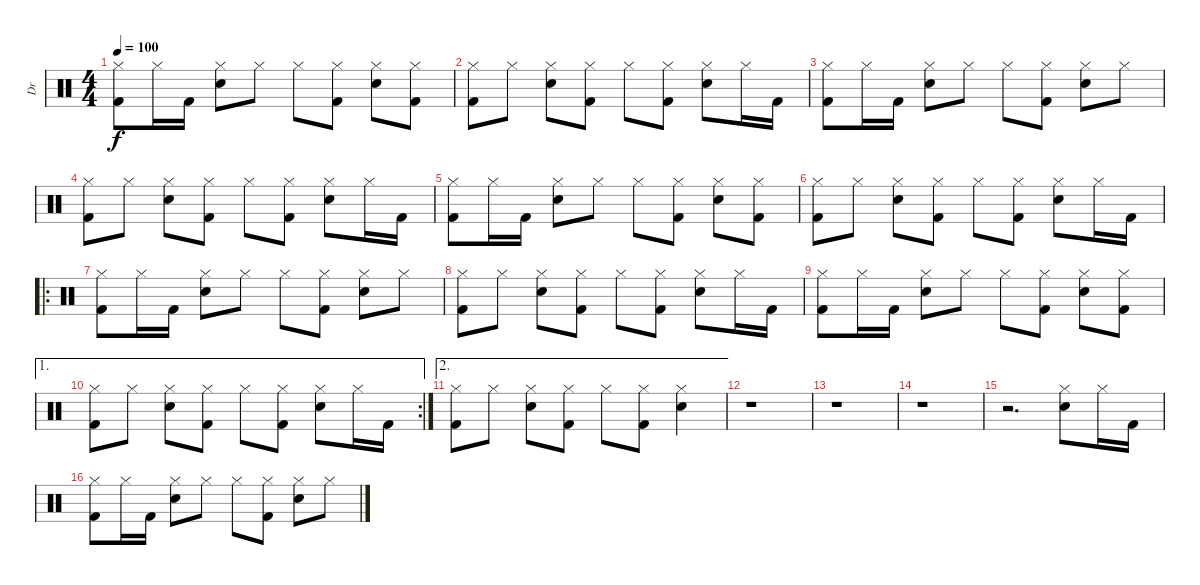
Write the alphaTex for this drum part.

\track ("Dr" "Dr") {instrument percussion}
\staff {score}
\articulation defaults
\ts (4 4)
\tempo 100
\clef neutral
\ks c
("Hi-Hat (closed)" "Kick (hit) 2").8{dy f} "Hi-Hat (closed)".16 "Kick (hit) 2".16 ("Hi-Hat (closed)" "Electric Snare (hit)").8 "Hi-Hat (closed)".8 "Hi-Hat (closed)".8 ("Hi-Hat (closed)" "Kick (hit) 2").8 ("Hi-Hat (closed)" "Electric Snare (hit)").8 ("Hi-Hat (closed)" "Kick (hit) 2").8 |
("Hi-Hat (closed)" "Kick (hit) 2").8 "Hi-Hat (closed)".8 ("Hi-Hat (closed)" "Electric Snare (hit)").8 ("Hi-Hat (closed)" "Kick (hit) 2").8 "Hi-Hat (closed)".8 ("Hi-Hat (closed)" "Kick (hit) 2").8 ("Hi-Hat (closed)" "Electric Snare (hit)").8 "Hi-Hat (closed)".16 "Kick (hit) 2".16 |
("Hi-Hat (closed)" "Kick (hit) 2").8 "Hi-Hat (closed)".16 "Kick (hit) 2".16 ("Hi-Hat (closed)" "Electric Snare (hit)").8 "Hi-Hat (closed)".8 "Hi-Hat (closed)".8 ("Hi-Hat (closed)" "Kick (hit) 2").8 ("Hi-Hat (closed)" "Electric Snare (hit)").8 "Hi-Hat (closed)".8 |
("Hi-Hat (closed)" "Kick (hit) 2").8 "Hi-Hat (closed)".8 ("Hi-Hat (closed)" "Electric Snare (hit)").8 ("Hi-Hat (closed)" "Kick (hit) 2").8 "Hi-Hat (closed)".8 ("Hi-Hat (closed)" "Kick (hit) 2").8 ("Hi-Hat (closed)" "Electric Snare (hit)").8 "Hi-Hat (closed)".16 "Kick (hit) 2".16 |
("Hi-Hat (closed)" "Kick (hit) 2").8 "Hi-Hat (closed)".16 "Kick (hit) 2".16 ("Hi-Hat (closed)" "Electric Snare (hit)").8 "Hi-Hat (closed)".8 "Hi-Hat (closed)".8 ("Hi-Hat (closed)" "Kick (hit) 2").8 ("Hi-Hat (closed)" "Electric Snare (hit)").8 ("Hi-Hat (closed)" "Kick (hit) 2").8 |
("Hi-Hat (closed)" "Kick (hit) 2").8 "Hi-Hat (closed)".8 ("Hi-Hat (closed)" "Electric Snare (hit)").8 ("Hi-Hat (closed)" "Kick (hit) 2").8 "Hi-Hat (closed)".8 ("Hi-Hat (closed)" "Kick (hit) 2").8 ("Hi-Hat (closed)" "Electric Snare (hit)").8 "Hi-Hat (closed)".16 "Kick (hit) 2".16 |
\ro
("Hi-Hat (closed)" "Kick (hit) 2").8 "Hi-Hat (closed)".16 "Kick (hit) 2".16 ("Hi-Hat (closed)" "Electric Snare (hit)").8 "Hi-Hat (closed)".8 "Hi-Hat (closed)".8 ("Hi-Hat (closed)" "Kick (hit) 2").8 ("Hi-Hat (closed)" "Electric Snare (hit)").8 "Hi-Hat (closed)".8 |
("Hi-Hat (closed)" "Kick (hit) 2").8 "Hi-Hat (closed)".8 ("Hi-Hat (closed)" "Electric Snare (hit)").8 ("Hi-Hat (closed)" "Kick (hit) 2").8 "Hi-Hat (closed)".8 ("Hi-Hat (closed)" "Kick (hit) 2").8 ("Hi-Hat (closed)" "Electric Snare (hit)").8 "Hi-Hat (closed)".16 "Kick (hit) 2".16 |
("Hi-Hat (closed)" "Kick (hit) 2").8 "Hi-Hat (closed)".16 "Kick (hit) 2".16 ("Hi-Hat (closed)" "Electric Snare (hit)").8 "Hi-Hat (closed)".8 "Hi-Hat (closed)".8 ("Hi-Hat (closed)" "Kick (hit) 2").8 ("Hi-Hat (closed)" "Electric Snare (hit)").8 ("Hi-Hat (closed)" "Kick (hit) 2").8 |
\ae 1
\rc 2
("Hi-Hat (closed)" "Kick (hit) 2").8 "Hi-Hat (closed)".8 ("Hi-Hat (closed)" "Electric Snare (hit)").8 ("Hi-Hat (closed)" "Kick (hit) 2").8 "Hi-Hat (closed)".8 ("Hi-Hat (closed)" "Kick (hit) 2").8 ("Hi-Hat (closed)" "Electric Snare (hit)").8 "Hi-Hat (closed)".16 "Kick (hit) 2".16 |
\ae 2
("Hi-Hat (closed)" "Kick (hit) 2").8 "Hi-Hat (closed)".8 ("Hi-Hat (closed)" "Electric Snare (hit)").8 ("Hi-Hat (closed)" "Kick (hit) 2").8 "Hi-Hat (closed)".8 ("Hi-Hat (closed)" "Kick (hit) 2").8 ("Hi-Hat (closed)" "Electric Snare (hit)").4 |
r.1 |
r.1 |
r.1 |
r.2{d} ("Hi-Hat (closed)" "Electric Snare (hit)").8 "Hi-Hat (closed)".16 "Kick (hit) 2".16 |
("Hi-Hat (closed)" "Kick (hit) 2").8 "Hi-Hat (closed)".16 "Kick (hit) 2".16 ("Hi-Hat (closed)" "Electric Snare (hit)").8 "Hi-Hat (closed)".8 "Hi-Hat (closed)".8 ("Hi-Hat (closed)" "Kick (hit) 2").8 ("Hi-Hat (closed)" "Electric Snare (hit)").8 "Hi-Hat (closed)".8
